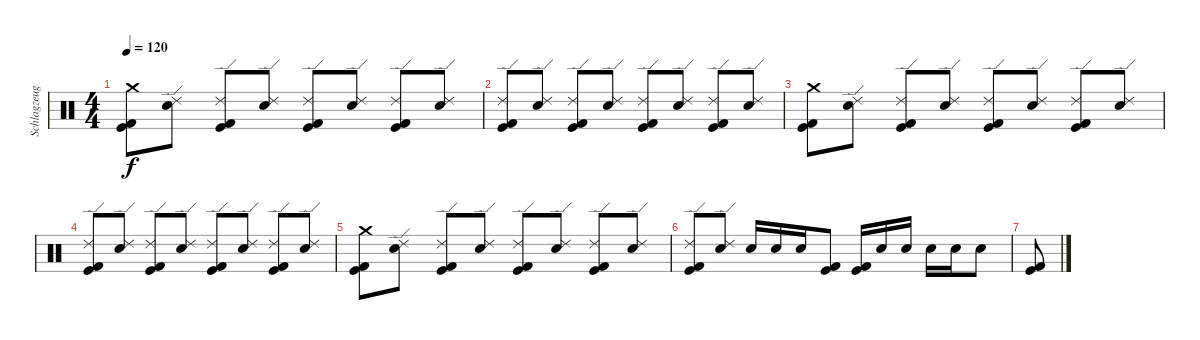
\track ("Schlagzeug" "Schlagzeug") {instrument percussion}
\staff {score}
\articulation defaults
\ts (4 4)
\tempo 120
\clef neutral
\ks c
("Kick (hit) 2" "Kick (hit)" "Crash medium (hit)").8{dy f} ("Electric Snare (hit)" "Ride (edge) 2").8 ("Kick (hit) 2" "Kick (hit)" "Ride (edge) 2").8 ("Electric Snare (hit)" "Ride (edge) 2").8 ("Kick (hit) 2" "Kick (hit)" "Ride (edge) 2").8 ("Electric Snare (hit)" "Ride (edge) 2").8 ("Kick (hit) 2" "Kick (hit)" "Ride (edge) 2").8 ("Electric Snare (hit)" "Ride (edge) 2").8 |
("Kick (hit) 2" "Kick (hit)" "Ride (edge) 2").8 ("Electric Snare (hit)" "Ride (edge) 2").8 ("Kick (hit) 2" "Kick (hit)" "Ride (edge) 2").8 ("Electric Snare (hit)" "Ride (edge) 2").8 ("Kick (hit) 2" "Kick (hit)" "Ride (edge) 2").8 ("Electric Snare (hit)" "Ride (edge) 2").8 ("Kick (hit) 2" "Kick (hit)" "Ride (edge) 2").8 ("Electric Snare (hit)" "Ride (edge) 2").8 |
("Kick (hit) 2" "Kick (hit)" "Crash medium (hit)").8 ("Electric Snare (hit)" "Ride (edge) 2").8 ("Kick (hit) 2" "Kick (hit)" "Ride (edge) 2").8 ("Electric Snare (hit)" "Ride (edge) 2").8 ("Kick (hit) 2" "Kick (hit)" "Ride (edge) 2").8 ("Electric Snare (hit)" "Ride (edge) 2").8 ("Kick (hit) 2" "Kick (hit)" "Ride (edge) 2").8 ("Electric Snare (hit)" "Ride (edge) 2").8 |
("Kick (hit) 2" "Kick (hit)" "Ride (edge) 2").8 ("Electric Snare (hit)" "Ride (edge) 2").8 ("Kick (hit) 2" "Kick (hit)" "Ride (edge) 2").8 ("Electric Snare (hit)" "Ride (edge) 2").8 ("Kick (hit) 2" "Kick (hit)" "Ride (edge) 2").8 ("Electric Snare (hit)" "Ride (edge) 2").8 ("Kick (hit) 2" "Kick (hit)" "Ride (edge) 2").8 ("Electric Snare (hit)" "Ride (edge) 2").8 |
("Kick (hit) 2" "Kick (hit)" "Crash medium (hit)").8 ("Electric Snare (hit)" "Ride (edge) 2").8 ("Kick (hit) 2" "Kick (hit)" "Ride (edge) 2").8 ("Electric Snare (hit)" "Ride (edge) 2").8 ("Kick (hit) 2" "Kick (hit)" "Ride (edge) 2").8 ("Electric Snare (hit)" "Ride (edge) 2").8 ("Kick (hit) 2" "Kick (hit)" "Ride (edge) 2").8 ("Electric Snare (hit)" "Ride (edge) 2").8 |
("Kick (hit) 2" "Kick (hit)" "Ride (edge) 2").8 ("Electric Snare (hit)" "Ride (edge) 2").8 "Electric Snare (hit)".16 "Electric Snare (hit)".16 "Electric Snare (hit)".16 ("Kick (hit) 2" "Kick (hit)").8 ("Kick (hit) 2" "Kick (hit)").16 "Electric Snare (hit)".16 "Electric Snare (hit)".16 "Electric Snare (hit)".16 "Electric Snare (hit)".16 "Electric Snare (hit)".8 |
("Kick (hit) 2" "Kick (hit)").8
